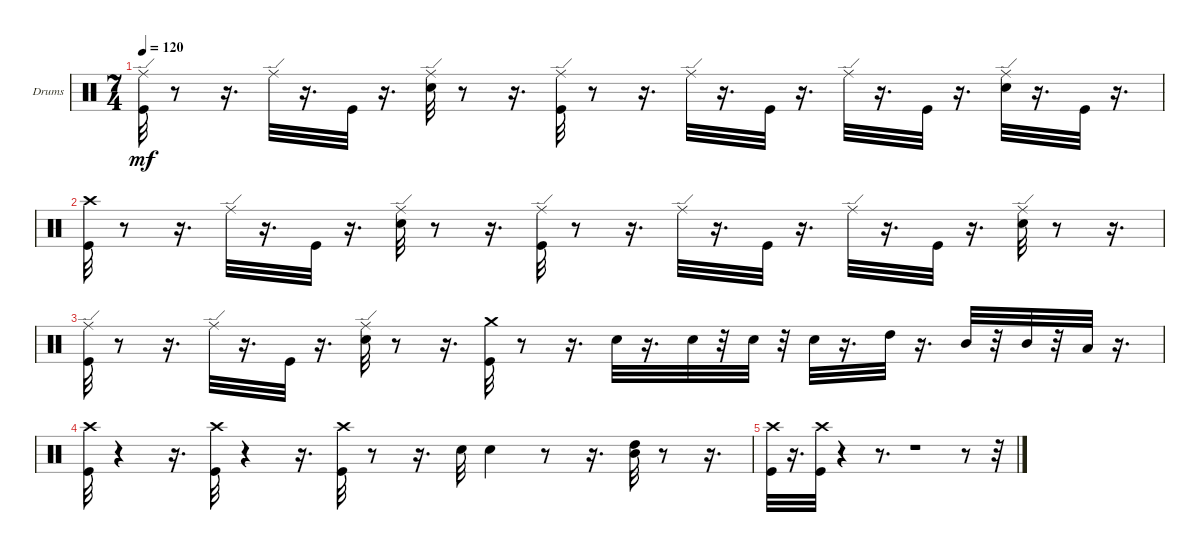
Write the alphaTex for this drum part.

\bracketExtendMode groupsimilarinstruments
\firstSystemTrackNameOrientation horizontal
\otherSystemsTrackNameOrientation horizontal
\track ("" "Drums") {instrument percussion}
\staff {score}
\articulation defaults
\ts (7 4)
\tempo 120
\clef neutral
\ks c
("Ride (edge)" "Kick (hit)").32{dy mf} r.8 r.16{d} "Ride (edge)".32 r.16{d} "Kick (hit)".32 r.16{d} ("Snare (hit) 2" "Ride (edge)").32 r.8 r.16{d} ("Kick (hit)" "Ride (edge)").32 r.8 r.16{d} "Ride (edge)".32 r.16{d} "Kick (hit)".32 r.16{d} "Ride (edge)".32 r.16{d} "Kick (hit)".32 r.16{d} ("Snare (hit) 2" "Ride (edge)").32 r.16{d} "Kick (hit)".32 r.16{d} |
("Crash high (hit)" "Kick (hit)").32 r.8 r.16{d} "Ride (edge)".32 r.16{d} "Kick (hit)".32 r.16{d} ("Snare (hit) 2" "Ride (edge)").32 r.8 r.16{d} ("Kick (hit)" "Ride (edge)").32 r.8 r.16{d} "Ride (edge)".32 r.16{d} "Kick (hit)".32 r.16{d} "Ride (edge)".32 r.16{d} "Kick (hit)".32 r.16{d} ("Snare (hit) 2" "Ride (edge)").32 r.8 r.16{d} |
("Ride (edge)" "Kick (hit)").32 r.8 r.16{d} "Ride (edge)".32 r.16{d} "Kick (hit)".32 r.16{d} ("Snare (hit) 2" "Ride (edge)").32 r.8 r.16{d} ("Crash medium (hit)" "Kick (hit)").32 r.8 r.16{d} "Snare (hit) 2".32 r.16{d} "Snare (hit) 2".32 r.32 "Snare (hit) 2".32 r.32 "Snare (hit) 2".32 r.16{d} "High Tom (hit)".32 r.16{d} "Mid Tom (hit)".32 r.32 "Mid Tom (hit)".32 r.32 "Low Tom (hit)".32 r.16{d} |
("Crash high (hit)" "Kick (hit)").32 r.4 r.16{d} ("Crash high (hit)" "Kick (hit)").32 r.4 r.16{d} ("Crash high (hit)" "Kick (hit)").32 r.8 r.16{d} "Snare (hit) 2".32 "Snare (hit) 2".4 r.8 r.16{d} ("High Tom (hit)" "Mid Tom (hit)").32 r.8 r.16{d} |
("Kick (hit)" "Crash high (hit)").32 r.16{d} ("Crash high (hit)" "Kick (hit)").32 r.4 r.8{d} r.1 r.8 r.32
